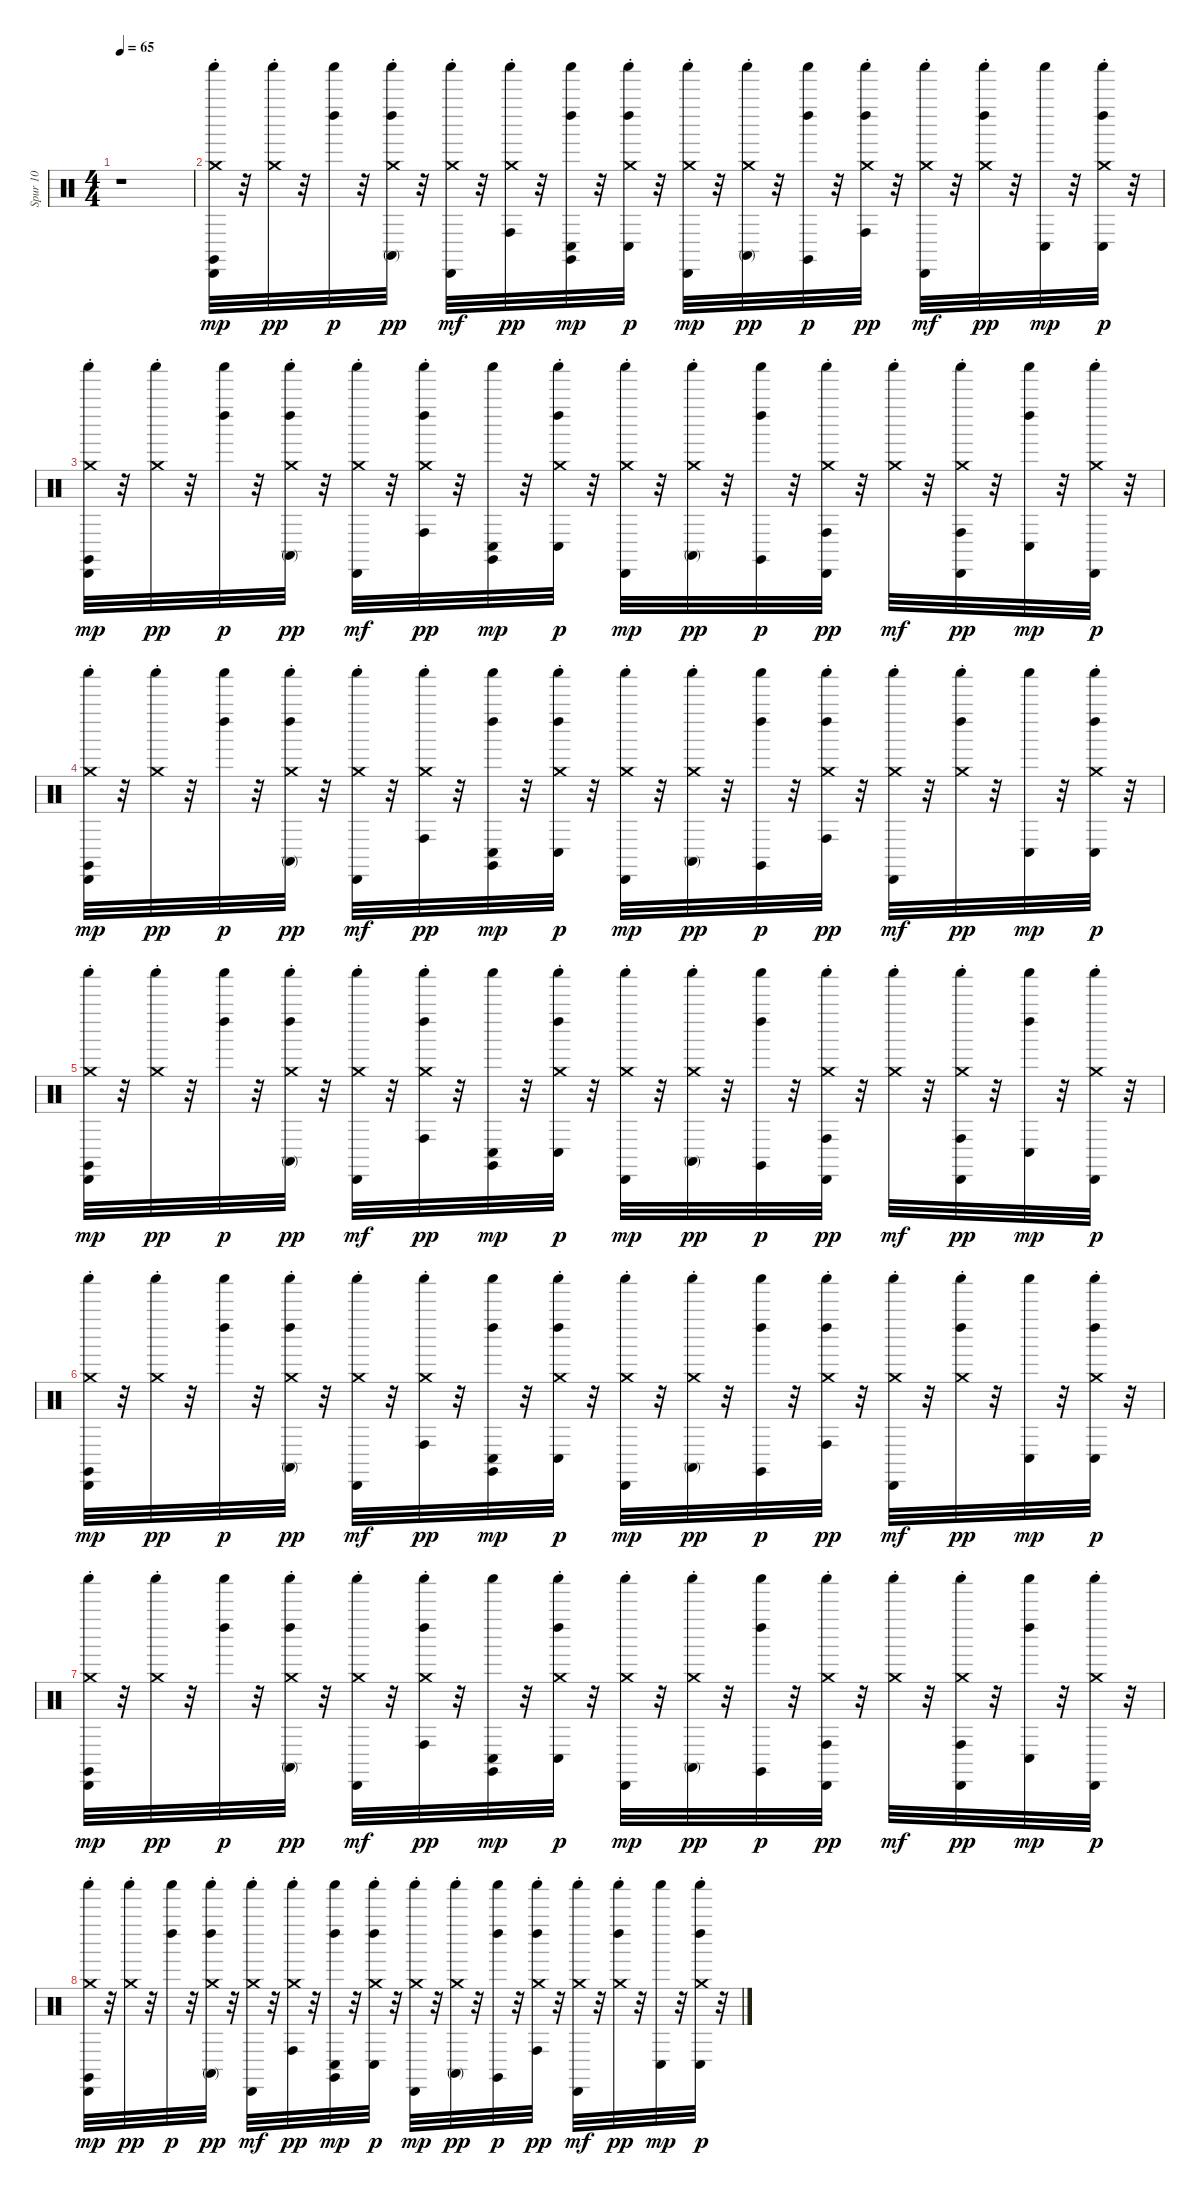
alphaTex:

\track ("Spur 10" "Spur 10") {instrument percussion}
\staff {score}
\articulation defaults
\ts (4 4)
\tempo 65
\clef neutral
\ks c
r.1{dy mp} |
("Claves (hit)" "Cabasa (hit)" "Shaker (hit)" "Crash medium (choke)").32 r.32 ("Shaker (hit)" "Crash medium (choke)").32{dy pp} r.32 ("Left Maraca (hit)" "Shaker (hit)").32{dy p} r.32 ("Conga high (mute)" "Left Maraca (hit)" "Shaker (hit)" "Crash medium (choke)").32{dy pp} r.32 ("Cabasa (hit)" "Shaker (hit)" "Crash medium (choke)").32{dy mf} r.32 ("Conga high (hit)" "Shaker (hit)" "Crash medium (choke)").32{dy pp} r.32 ("Claves (hit)" "Conga low (hit)" "Left Maraca (hit)" "Shaker (hit)").32{dy mp} r.32 ("Conga low (hit)" "Left Maraca (hit)" "Shaker (hit)" "Crash medium (choke)").32{dy p} r.32 ("Cabasa (hit)" "Shaker (hit)" "Crash medium (choke)").32{dy mp} r.32 ("Conga high (mute)" "Shaker (hit)" "Crash medium (choke)").32{dy pp} r.32 ("Claves (hit)" "Left Maraca (hit)" "Shaker (hit)").32{dy p} r.32 ("Conga high (hit)" "Left Maraca (hit)" "Shaker (hit)" "Crash medium (choke)").32{dy pp} r.32 ("Cabasa (hit)" "Shaker (hit)" "Crash medium (choke)").32{dy mf} r.32 ("Left Maraca (hit)" "Shaker (hit)" "Crash medium (choke)").32{dy pp} r.32 ("Conga low (hit)" "Shaker (hit)").32{dy mp} r.32 ("Conga low (hit)" "Left Maraca (hit)" "Shaker (hit)" "Crash medium (choke)").32{dy p} r.32 |
("Claves (hit)" "Cabasa (hit)" "Shaker (hit)" "Crash medium (choke)").32{dy mp} r.32 ("Shaker (hit)" "Crash medium (choke)").32{dy pp} r.32 ("Left Maraca (hit)" "Shaker (hit)").32{dy p} r.32 ("Conga high (mute)" "Left Maraca (hit)" "Shaker (hit)" "Crash medium (choke)").32{dy pp} r.32 ("Cabasa (hit)" "Shaker (hit)" "Crash medium (choke)").32{dy mf} r.32 ("Conga high (hit)" "Left Maraca (hit)" "Shaker (hit)" "Crash medium (choke)").32{dy pp} r.32 ("Claves (hit)" "Conga low (hit)" "Shaker (hit)").32{dy mp} r.32 ("Conga low (hit)" "Left Maraca (hit)" "Shaker (hit)" "Crash medium (choke)").32{dy p} r.32 ("Cabasa (hit)" "Shaker (hit)" "Crash medium (choke)").32{dy mp} r.32 ("Conga high (mute)" "Shaker (hit)" "Crash medium (choke)").32{dy pp} r.32 ("Claves (hit)" "Left Maraca (hit)" "Shaker (hit)").32{dy p} r.32 ("Conga high (hit)" "Cabasa (hit)" "Shaker (hit)" "Crash medium (choke)").32{dy pp} r.32 ("Shaker (hit)" "Crash medium (choke)").32{dy mf} r.32 ("Conga high (hit)" "Cabasa (hit)" "Shaker (hit)" "Crash medium (choke)").32{dy pp} r.32 ("Conga low (hit)" "Left Maraca (hit)" "Shaker (hit)").32{dy mp} r.32 ("Cabasa (hit)" "Shaker (hit)" "Crash medium (choke)").32{dy p} r.32 |
("Claves (hit)" "Cabasa (hit)" "Shaker (hit)" "Crash medium (choke)").32{dy mp} r.32 ("Shaker (hit)" "Crash medium (choke)").32{dy pp} r.32 ("Left Maraca (hit)" "Shaker (hit)").32{dy p} r.32 ("Conga high (mute)" "Left Maraca (hit)" "Shaker (hit)" "Crash medium (choke)").32{dy pp} r.32 ("Cabasa (hit)" "Shaker (hit)" "Crash medium (choke)").32{dy mf} r.32 ("Conga high (hit)" "Shaker (hit)" "Crash medium (choke)").32{dy pp} r.32 ("Claves (hit)" "Conga low (hit)" "Left Maraca (hit)" "Shaker (hit)").32{dy mp} r.32 ("Conga low (hit)" "Left Maraca (hit)" "Shaker (hit)" "Crash medium (choke)").32{dy p} r.32 ("Cabasa (hit)" "Shaker (hit)" "Crash medium (choke)").32{dy mp} r.32 ("Conga high (mute)" "Shaker (hit)" "Crash medium (choke)").32{dy pp} r.32 ("Claves (hit)" "Left Maraca (hit)" "Shaker (hit)").32{dy p} r.32 ("Conga high (hit)" "Left Maraca (hit)" "Shaker (hit)" "Crash medium (choke)").32{dy pp} r.32 ("Cabasa (hit)" "Shaker (hit)" "Crash medium (choke)").32{dy mf} r.32 ("Left Maraca (hit)" "Shaker (hit)" "Crash medium (choke)").32{dy pp} r.32 ("Conga low (hit)" "Shaker (hit)").32{dy mp} r.32 ("Conga low (hit)" "Left Maraca (hit)" "Shaker (hit)" "Crash medium (choke)").32{dy p} r.32 |
("Claves (hit)" "Cabasa (hit)" "Shaker (hit)" "Crash medium (choke)").32{dy mp} r.32 ("Shaker (hit)" "Crash medium (choke)").32{dy pp} r.32 ("Left Maraca (hit)" "Shaker (hit)").32{dy p} r.32 ("Conga high (mute)" "Left Maraca (hit)" "Shaker (hit)" "Crash medium (choke)").32{dy pp} r.32 ("Cabasa (hit)" "Shaker (hit)" "Crash medium (choke)").32{dy mf} r.32 ("Conga high (hit)" "Left Maraca (hit)" "Shaker (hit)" "Crash medium (choke)").32{dy pp} r.32 ("Claves (hit)" "Conga low (hit)" "Shaker (hit)").32{dy mp} r.32 ("Conga low (hit)" "Left Maraca (hit)" "Shaker (hit)" "Crash medium (choke)").32{dy p} r.32 ("Cabasa (hit)" "Shaker (hit)" "Crash medium (choke)").32{dy mp} r.32 ("Conga high (mute)" "Shaker (hit)" "Crash medium (choke)").32{dy pp} r.32 ("Claves (hit)" "Left Maraca (hit)" "Shaker (hit)").32{dy p} r.32 ("Conga high (hit)" "Cabasa (hit)" "Shaker (hit)" "Crash medium (choke)").32{dy pp} r.32 ("Shaker (hit)" "Crash medium (choke)").32{dy mf} r.32 ("Conga high (hit)" "Cabasa (hit)" "Shaker (hit)" "Crash medium (choke)").32{dy pp} r.32 ("Conga low (hit)" "Left Maraca (hit)" "Shaker (hit)").32{dy mp} r.32 ("Cabasa (hit)" "Shaker (hit)" "Crash medium (choke)").32{dy p} r.32 |
("Claves (hit)" "Cabasa (hit)" "Shaker (hit)" "Crash medium (choke)").32{dy mp} r.32 ("Shaker (hit)" "Crash medium (choke)").32{dy pp} r.32 ("Left Maraca (hit)" "Shaker (hit)").32{dy p} r.32 ("Conga high (mute)" "Left Maraca (hit)" "Shaker (hit)" "Crash medium (choke)").32{dy pp} r.32 ("Cabasa (hit)" "Shaker (hit)" "Crash medium (choke)").32{dy mf} r.32 ("Conga high (hit)" "Shaker (hit)" "Crash medium (choke)").32{dy pp} r.32 ("Claves (hit)" "Conga low (hit)" "Left Maraca (hit)" "Shaker (hit)").32{dy mp} r.32 ("Conga low (hit)" "Left Maraca (hit)" "Shaker (hit)" "Crash medium (choke)").32{dy p} r.32 ("Cabasa (hit)" "Shaker (hit)" "Crash medium (choke)").32{dy mp} r.32 ("Conga high (mute)" "Shaker (hit)" "Crash medium (choke)").32{dy pp} r.32 ("Claves (hit)" "Left Maraca (hit)" "Shaker (hit)").32{dy p} r.32 ("Conga high (hit)" "Left Maraca (hit)" "Shaker (hit)" "Crash medium (choke)").32{dy pp} r.32 ("Cabasa (hit)" "Shaker (hit)" "Crash medium (choke)").32{dy mf} r.32 ("Left Maraca (hit)" "Shaker (hit)" "Crash medium (choke)").32{dy pp} r.32 ("Conga low (hit)" "Shaker (hit)").32{dy mp} r.32 ("Conga low (hit)" "Left Maraca (hit)" "Shaker (hit)" "Crash medium (choke)").32{dy p} r.32 |
("Claves (hit)" "Cabasa (hit)" "Shaker (hit)" "Crash medium (choke)").32{dy mp} r.32 ("Shaker (hit)" "Crash medium (choke)").32{dy pp} r.32 ("Left Maraca (hit)" "Shaker (hit)").32{dy p} r.32 ("Conga high (mute)" "Left Maraca (hit)" "Shaker (hit)" "Crash medium (choke)").32{dy pp} r.32 ("Cabasa (hit)" "Shaker (hit)" "Crash medium (choke)").32{dy mf} r.32 ("Conga high (hit)" "Left Maraca (hit)" "Shaker (hit)" "Crash medium (choke)").32{dy pp} r.32 ("Claves (hit)" "Conga low (hit)" "Shaker (hit)").32{dy mp} r.32 ("Conga low (hit)" "Left Maraca (hit)" "Shaker (hit)" "Crash medium (choke)").32{dy p} r.32 ("Cabasa (hit)" "Shaker (hit)" "Crash medium (choke)").32{dy mp} r.32 ("Conga high (mute)" "Shaker (hit)" "Crash medium (choke)").32{dy pp} r.32 ("Claves (hit)" "Left Maraca (hit)" "Shaker (hit)").32{dy p} r.32 ("Conga high (hit)" "Cabasa (hit)" "Shaker (hit)" "Crash medium (choke)").32{dy pp} r.32 ("Shaker (hit)" "Crash medium (choke)").32{dy mf} r.32 ("Conga high (hit)" "Cabasa (hit)" "Shaker (hit)" "Crash medium (choke)").32{dy pp} r.32 ("Conga low (hit)" "Left Maraca (hit)" "Shaker (hit)").32{dy mp} r.32 ("Cabasa (hit)" "Shaker (hit)" "Crash medium (choke)").32{dy p} r.32 |
("Claves (hit)" "Cabasa (hit)" "Shaker (hit)" "Crash medium (choke)").32{dy mp} r.32 ("Shaker (hit)" "Crash medium (choke)").32{dy pp} r.32 ("Left Maraca (hit)" "Shaker (hit)").32{dy p} r.32 ("Conga high (mute)" "Left Maraca (hit)" "Shaker (hit)" "Crash medium (choke)").32{dy pp} r.32 ("Cabasa (hit)" "Shaker (hit)" "Crash medium (choke)").32{dy mf} r.32 ("Conga high (hit)" "Shaker (hit)" "Crash medium (choke)").32{dy pp} r.32 ("Claves (hit)" "Conga low (hit)" "Left Maraca (hit)" "Shaker (hit)").32{dy mp} r.32 ("Conga low (hit)" "Left Maraca (hit)" "Shaker (hit)" "Crash medium (choke)").32{dy p} r.32 ("Cabasa (hit)" "Shaker (hit)" "Crash medium (choke)").32{dy mp} r.32 ("Conga high (mute)" "Shaker (hit)" "Crash medium (choke)").32{dy pp} r.32 ("Claves (hit)" "Left Maraca (hit)" "Shaker (hit)").32{dy p} r.32 ("Conga high (hit)" "Left Maraca (hit)" "Shaker (hit)" "Crash medium (choke)").32{dy pp} r.32 ("Cabasa (hit)" "Shaker (hit)" "Crash medium (choke)").32{dy mf} r.32 ("Left Maraca (hit)" "Shaker (hit)" "Crash medium (choke)").32{dy pp} r.32 ("Conga low (hit)" "Shaker (hit)").32{dy mp} r.32 ("Conga low (hit)" "Left Maraca (hit)" "Shaker (hit)" "Crash medium (choke)").32{dy p} r.32
